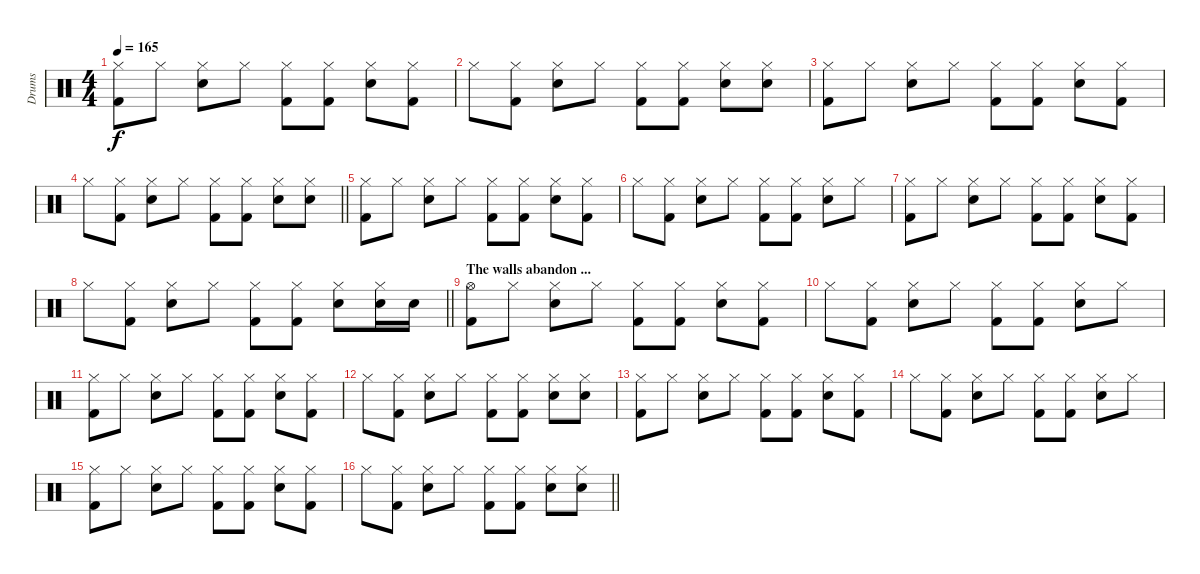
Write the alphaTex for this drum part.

\track ("Drums" "Drums") {instrument percussion}
\staff {score}
\articulation defaults
\ts (4 4)
\tempo 165
\clef neutral
\ks c
("Hi-Hat (closed)" "Kick (hit) 2").8{dy f} "Hi-Hat (closed)".8 ("Hi-Hat (closed)" "Electric Snare (hit)").8 "Hi-Hat (closed)".8 ("Hi-Hat (closed)" "Kick (hit) 2").8 ("Hi-Hat (closed)" "Kick (hit) 2").8 ("Hi-Hat (closed)" "Electric Snare (hit)").8 ("Hi-Hat (closed)" "Kick (hit) 2").8 |
"Hi-Hat (closed)".8 ("Hi-Hat (closed)" "Kick (hit) 2").8 ("Hi-Hat (closed)" "Electric Snare (hit)").8 "Hi-Hat (closed)".8 ("Hi-Hat (closed)" "Kick (hit) 2").8 ("Hi-Hat (closed)" "Kick (hit) 2").8 ("Hi-Hat (closed)" "Electric Snare (hit)").8 ("Hi-Hat (closed)" "Electric Snare (hit)").8 |
("Hi-Hat (closed)" "Kick (hit) 2").8 "Hi-Hat (closed)".8 ("Hi-Hat (closed)" "Electric Snare (hit)").8 "Hi-Hat (closed)".8 ("Hi-Hat (closed)" "Kick (hit) 2").8 ("Hi-Hat (closed)" "Kick (hit) 2").8 ("Hi-Hat (closed)" "Electric Snare (hit)").8 ("Hi-Hat (closed)" "Kick (hit) 2").8 |
\barLineRight lightlight "Hi-Hat (closed)".8
("Hi-Hat (closed)" "Kick (hit) 2").8 ("Hi-Hat (closed)" "Electric Snare (hit)").8 "Hi-Hat (closed)".8 ("Hi-Hat (closed)" "Kick (hit) 2").8 ("Hi-Hat (closed)" "Kick (hit) 2").8 ("Hi-Hat (closed)" "Electric Snare (hit)").8 ("Hi-Hat (closed)" "Electric Snare (hit)").8 |
("Hi-Hat (closed)" "Kick (hit) 2").8 "Hi-Hat (closed)".8 ("Hi-Hat (closed)" "Electric Snare (hit)").8 "Hi-Hat (closed)".8 ("Hi-Hat (closed)" "Kick (hit) 2").8 ("Hi-Hat (closed)" "Kick (hit) 2").8 ("Hi-Hat (closed)" "Electric Snare (hit)").8 ("Hi-Hat (closed)" "Kick (hit) 2").8 |
"Hi-Hat (closed)".8 ("Hi-Hat (closed)" "Kick (hit) 2").8 ("Hi-Hat (closed)" "Electric Snare (hit)").8 "Hi-Hat (closed)".8 ("Hi-Hat (closed)" "Kick (hit) 2").8 ("Hi-Hat (closed)" "Kick (hit) 2").8 ("Hi-Hat (closed)" "Electric Snare (hit)").8 "Hi-Hat (closed)".8 |
("Hi-Hat (closed)" "Kick (hit) 2").8 "Hi-Hat (closed)".8 ("Hi-Hat (closed)" "Electric Snare (hit)").8 "Hi-Hat (closed)".8 ("Hi-Hat (closed)" "Kick (hit) 2").8 ("Hi-Hat (closed)" "Kick (hit) 2").8 ("Hi-Hat (closed)" "Electric Snare (hit)").8 ("Hi-Hat (closed)" "Kick (hit) 2").8 |
\barLineRight lightlight "Hi-Hat (closed)".8
("Hi-Hat (closed)" "Kick (hit) 2").8 ("Hi-Hat (closed)" "Electric Snare (hit)").8 "Hi-Hat (closed)".8 ("Hi-Hat (closed)" "Kick (hit) 2").8 ("Hi-Hat (closed)" "Kick (hit) 2").8 ("Hi-Hat (closed)" "Electric Snare (hit)").8 ("Hi-Hat (closed)" "Electric Snare (hit)").16 "Electric Snare (hit)".16 |
\section ("" "The walls abandon ...")
("Hi-Hat (open)" "Kick (hit) 2").8 "Hi-Hat (closed)".8 ("Hi-Hat (closed)" "Electric Snare (hit)").8 "Hi-Hat (closed)".8 ("Hi-Hat (closed)" "Kick (hit) 2").8 ("Hi-Hat (closed)" "Kick (hit) 2").8 ("Hi-Hat (closed)" "Electric Snare (hit)").8 ("Hi-Hat (closed)" "Kick (hit) 2").8 |
"Hi-Hat (closed)".8 ("Hi-Hat (closed)" "Kick (hit) 2").8 ("Hi-Hat (closed)" "Electric Snare (hit)").8 "Hi-Hat (closed)".8 ("Hi-Hat (closed)" "Kick (hit) 2").8 ("Hi-Hat (closed)" "Kick (hit) 2").8 ("Hi-Hat (closed)" "Electric Snare (hit)").8 "Hi-Hat (closed)".8 |
("Hi-Hat (closed)" "Kick (hit) 2").8 "Hi-Hat (closed)".8 ("Hi-Hat (closed)" "Electric Snare (hit)").8 "Hi-Hat (closed)".8 ("Hi-Hat (closed)" "Kick (hit) 2").8 ("Hi-Hat (closed)" "Kick (hit) 2").8 ("Hi-Hat (closed)" "Electric Snare (hit)").8 ("Hi-Hat (closed)" "Kick (hit) 2").8 |
"Hi-Hat (closed)".8 ("Hi-Hat (closed)" "Kick (hit) 2").8 ("Hi-Hat (closed)" "Electric Snare (hit)").8 "Hi-Hat (closed)".8 ("Hi-Hat (closed)" "Kick (hit) 2").8 ("Hi-Hat (closed)" "Kick (hit) 2").8 ("Hi-Hat (closed)" "Electric Snare (hit)").8 ("Hi-Hat (closed)" "Electric Snare (hit)").8 |
("Hi-Hat (closed)" "Kick (hit) 2").8 "Hi-Hat (closed)".8 ("Hi-Hat (closed)" "Electric Snare (hit)").8 "Hi-Hat (closed)".8 ("Hi-Hat (closed)" "Kick (hit) 2").8 ("Hi-Hat (closed)" "Kick (hit) 2").8 ("Hi-Hat (closed)" "Electric Snare (hit)").8 ("Hi-Hat (closed)" "Kick (hit) 2").8 |
"Hi-Hat (closed)".8 ("Hi-Hat (closed)" "Kick (hit) 2").8 ("Hi-Hat (closed)" "Electric Snare (hit)").8 "Hi-Hat (closed)".8 ("Hi-Hat (closed)" "Kick (hit) 2").8 ("Hi-Hat (closed)" "Kick (hit) 2").8 ("Hi-Hat (closed)" "Electric Snare (hit)").8 "Hi-Hat (closed)".8 |
("Hi-Hat (closed)" "Kick (hit) 2").8 "Hi-Hat (closed)".8 ("Hi-Hat (closed)" "Electric Snare (hit)").8 "Hi-Hat (closed)".8 ("Hi-Hat (closed)" "Kick (hit) 2").8 ("Hi-Hat (closed)" "Kick (hit) 2").8 ("Hi-Hat (closed)" "Electric Snare (hit)").8 ("Hi-Hat (closed)" "Kick (hit) 2").8 |
\barLineRight lightlight "Hi-Hat (closed)".8
("Hi-Hat (closed)" "Kick (hit) 2").8 ("Hi-Hat (closed)" "Electric Snare (hit)").8 "Hi-Hat (closed)".8 ("Hi-Hat (closed)" "Kick (hit) 2").8 ("Hi-Hat (closed)" "Kick (hit) 2").8 ("Hi-Hat (closed)" "Electric Snare (hit)").8 ("Hi-Hat (closed)" "Electric Snare (hit)").8
